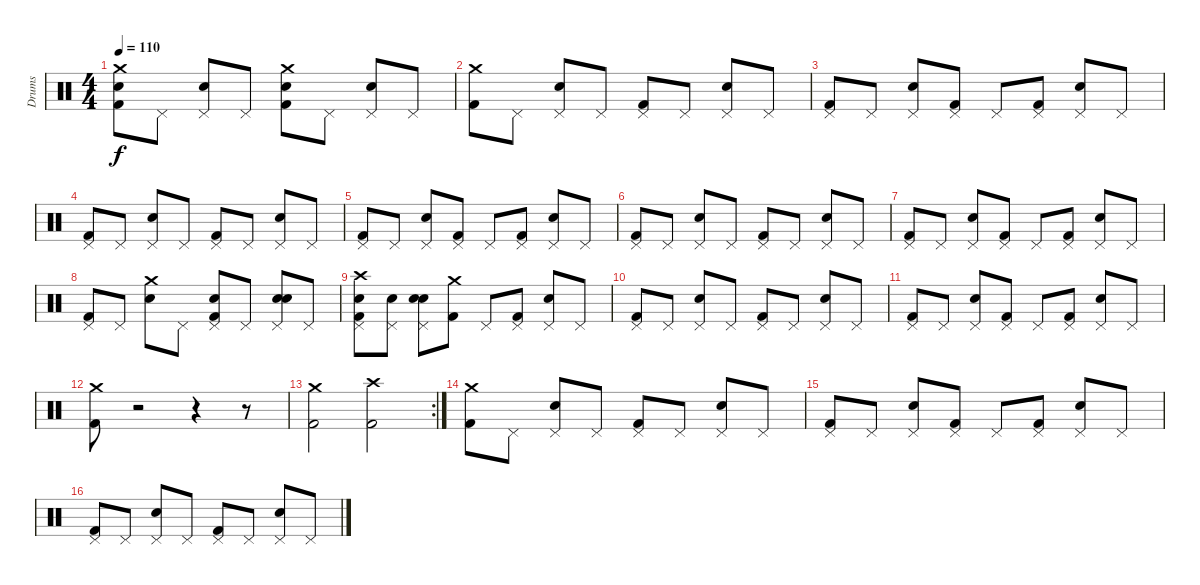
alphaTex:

\track ("Drums" "Drums") {instrument percussion}
\staff {score}
\articulation defaults
\ts (4 4)
\tempo 110
\clef neutral
\ks c
("Crash medium (hit)" "Snare (hit) 2" "Kick (hit) 2").8{dy f} "Pedal Hi-Hat (hit)".8 ("Pedal Hi-Hat (hit)" "Snare (hit) 2").8 "Pedal Hi-Hat (hit)".8 ("Crash medium (hit)" "Snare (hit) 2" "Kick (hit) 2").8 "Pedal Hi-Hat (hit)".8 ("Pedal Hi-Hat (hit)" "Snare (hit) 2").8 "Pedal Hi-Hat (hit)".8 |
("Crash medium (hit)" "Kick (hit) 2").8 "Pedal Hi-Hat (hit)".8 ("Pedal Hi-Hat (hit)" "Snare (hit) 2").8 "Pedal Hi-Hat (hit)".8 ("Pedal Hi-Hat (hit)" "Kick (hit) 2").8 "Pedal Hi-Hat (hit)".8 ("Pedal Hi-Hat (hit)" "Snare (hit) 2").8 "Pedal Hi-Hat (hit)".8 |
("Pedal Hi-Hat (hit)" "Kick (hit) 2").8 "Pedal Hi-Hat (hit)".8 ("Pedal Hi-Hat (hit)" "Snare (hit) 2").8 ("Pedal Hi-Hat (hit)" "Kick (hit) 2").8 "Pedal Hi-Hat (hit)".8 ("Pedal Hi-Hat (hit)" "Kick (hit) 2").8 ("Pedal Hi-Hat (hit)" "Snare (hit) 2").8 "Pedal Hi-Hat (hit)".8 |
("Pedal Hi-Hat (hit)" "Kick (hit) 2").8 "Pedal Hi-Hat (hit)".8 ("Pedal Hi-Hat (hit)" "Snare (hit) 2").8 "Pedal Hi-Hat (hit)".8 ("Pedal Hi-Hat (hit)" "Kick (hit) 2").8 "Pedal Hi-Hat (hit)".8 ("Pedal Hi-Hat (hit)" "Snare (hit) 2").8 "Pedal Hi-Hat (hit)".8 |
("Pedal Hi-Hat (hit)" "Kick (hit) 2").8 "Pedal Hi-Hat (hit)".8 ("Pedal Hi-Hat (hit)" "Snare (hit) 2").8 ("Pedal Hi-Hat (hit)" "Kick (hit) 2").8 "Pedal Hi-Hat (hit)".8 ("Pedal Hi-Hat (hit)" "Kick (hit) 2").8 ("Pedal Hi-Hat (hit)" "Snare (hit) 2").8 "Pedal Hi-Hat (hit)".8 |
("Pedal Hi-Hat (hit)" "Kick (hit) 2").8 "Pedal Hi-Hat (hit)".8 ("Pedal Hi-Hat (hit)" "Snare (hit) 2").8 "Pedal Hi-Hat (hit)".8 ("Pedal Hi-Hat (hit)" "Kick (hit) 2").8 "Pedal Hi-Hat (hit)".8 ("Pedal Hi-Hat (hit)" "Snare (hit) 2").8 "Pedal Hi-Hat (hit)".8 |
("Pedal Hi-Hat (hit)" "Kick (hit) 2").8 "Pedal Hi-Hat (hit)".8 ("Pedal Hi-Hat (hit)" "Snare (hit) 2").8 ("Pedal Hi-Hat (hit)" "Kick (hit) 2").8 "Pedal Hi-Hat (hit)".8 ("Pedal Hi-Hat (hit)" "Kick (hit) 2").8 ("Pedal Hi-Hat (hit)" "Snare (hit) 2").8 "Pedal Hi-Hat (hit)".8 |
("Pedal Hi-Hat (hit)" "Kick (hit) 2").8 "Pedal Hi-Hat (hit)".8 ("Crash medium (hit)" "Snare (hit) 2").8 "Pedal Hi-Hat (hit)".8 ("Pedal Hi-Hat (hit)" "Electric Snare (hit)" "Kick (hit) 2").8 "Pedal Hi-Hat (hit)".8 ("Pedal Hi-Hat (hit)" "Electric Snare (hit)" "Snare (hit) 2").8 "Pedal Hi-Hat (hit)".8 |
("Pedal Hi-Hat (hit)" "Electric Snare (hit)" "Crash high (hit)" "Kick (hit) 2").8 ("Pedal Hi-Hat (hit)" "Electric Snare (hit)").8 ("Pedal Hi-Hat (hit)" "Electric Snare (hit)" "Snare (hit) 2").8 ("Crash medium (hit)" "Kick (hit) 2").8 "Pedal Hi-Hat (hit)".8 ("Pedal Hi-Hat (hit)" "Kick (hit) 2").8 ("Pedal Hi-Hat (hit)" "Snare (hit) 2").8 "Pedal Hi-Hat (hit)".8 |
("Pedal Hi-Hat (hit)" "Kick (hit) 2").8 "Pedal Hi-Hat (hit)".8 ("Pedal Hi-Hat (hit)" "Snare (hit) 2").8 "Pedal Hi-Hat (hit)".8 ("Pedal Hi-Hat (hit)" "Kick (hit) 2").8 "Pedal Hi-Hat (hit)".8 ("Pedal Hi-Hat (hit)" "Snare (hit) 2").8 "Pedal Hi-Hat (hit)".8 |
("Pedal Hi-Hat (hit)" "Kick (hit) 2").8 "Pedal Hi-Hat (hit)".8 ("Pedal Hi-Hat (hit)" "Snare (hit) 2").8 ("Pedal Hi-Hat (hit)" "Kick (hit) 2").8 "Pedal Hi-Hat (hit)".8 ("Pedal Hi-Hat (hit)" "Kick (hit) 2").8 ("Pedal Hi-Hat (hit)" "Snare (hit) 2").8 "Pedal Hi-Hat (hit)".8 |
("Crash medium (hit)" "Kick (hit) 2").8 r.2 r.4 r.8 |
\rc 2
("Crash medium (hit)" "Kick (hit) 2").2 ("Crash high (hit)" "Kick (hit) 2").2 |
("Crash medium (hit)" "Kick (hit) 2").8 "Pedal Hi-Hat (hit)".8 ("Pedal Hi-Hat (hit)" "Snare (hit) 2").8 "Pedal Hi-Hat (hit)".8 ("Pedal Hi-Hat (hit)" "Kick (hit) 2").8 "Pedal Hi-Hat (hit)".8 ("Pedal Hi-Hat (hit)" "Snare (hit) 2").8 "Pedal Hi-Hat (hit)".8 |
("Pedal Hi-Hat (hit)" "Kick (hit) 2").8 "Pedal Hi-Hat (hit)".8 ("Pedal Hi-Hat (hit)" "Snare (hit) 2").8 ("Pedal Hi-Hat (hit)" "Kick (hit) 2").8 "Pedal Hi-Hat (hit)".8 ("Pedal Hi-Hat (hit)" "Kick (hit) 2").8 ("Pedal Hi-Hat (hit)" "Snare (hit) 2").8 "Pedal Hi-Hat (hit)".8 |
("Pedal Hi-Hat (hit)" "Kick (hit) 2").8 "Pedal Hi-Hat (hit)".8 ("Pedal Hi-Hat (hit)" "Snare (hit) 2").8 "Pedal Hi-Hat (hit)".8 ("Pedal Hi-Hat (hit)" "Kick (hit) 2").8 "Pedal Hi-Hat (hit)".8 ("Pedal Hi-Hat (hit)" "Snare (hit) 2").8 "Pedal Hi-Hat (hit)".8
